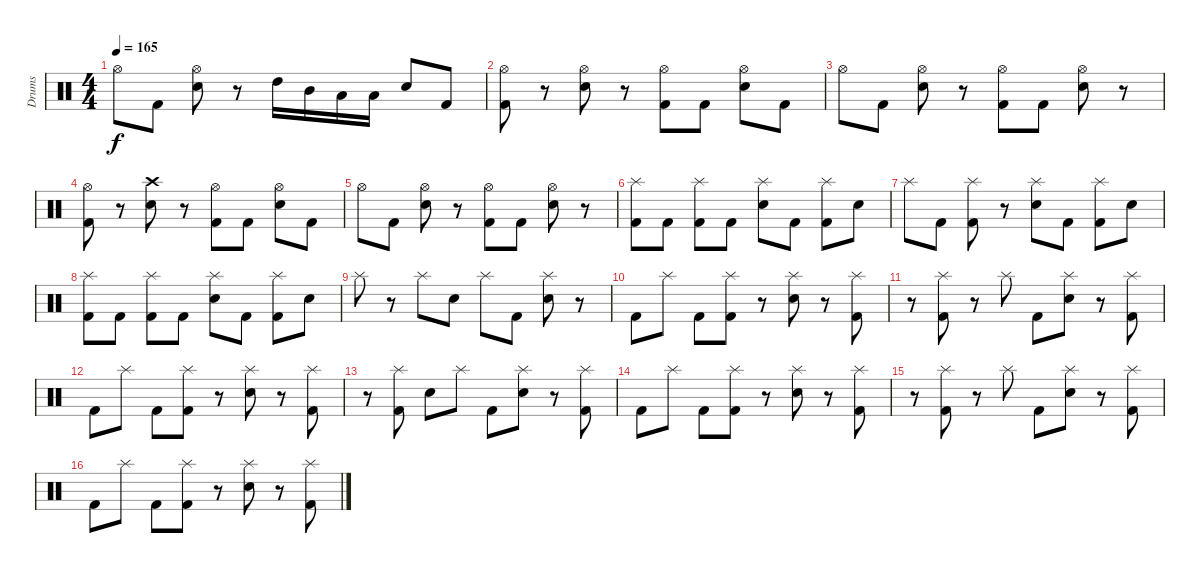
\track ("Drums" "Drums") {instrument percussion}
\staff {score}
\articulation defaults
\ts (4 4)
\tempo 165
\clef neutral
\ks c "Hi-Hat (open)".8{dy f} "Kick (hit) 2".8
("Hi-Hat (open)" "Electric Snare (hit)").8 r.8 "High Tom (hit)".16 "Mid Tom (hit)".16 "Low Tom (hit)".16 "Low Tom (hit)".16 "Electric Snare (hit)".8 "Kick (hit) 2".8 |
("Hi-Hat (open)" "Kick (hit) 2").8 r.8 ("Hi-Hat (open)" "Electric Snare (hit)").8 r.8 ("Hi-Hat (open)" "Kick (hit) 2").8 "Kick (hit) 2".8 ("Hi-Hat (open)" "Electric Snare (hit)").8 "Kick (hit) 2".8 |
"Hi-Hat (open)".8 "Kick (hit) 2".8 ("Hi-Hat (open)" "Electric Snare (hit)").8 r.8 ("Hi-Hat (open)" "Kick (hit) 2").8 "Kick (hit) 2".8 ("Hi-Hat (open)" "Electric Snare (hit)").8 r.8 |
("Hi-Hat (open)" "Kick (hit) 2").8 r.8 ("Crash high (hit)" "Electric Snare (hit)").8 r.8 ("Hi-Hat (open)" "Kick (hit) 2").8 "Kick (hit) 2".8 ("Hi-Hat (open)" "Electric Snare (hit)").8 "Kick (hit) 2".8 |
"Hi-Hat (open)".8 "Kick (hit) 2".8 ("Hi-Hat (open)" "Electric Snare (hit)").8 r.8 ("Hi-Hat (open)" "Kick (hit) 2").8 "Kick (hit) 2".8 ("Hi-Hat (open)" "Electric Snare (hit)").8 r.8 |
("Splash (hit)" "Kick (hit) 2").8 "Kick (hit) 2".8 ("Splash (hit)" "Kick (hit) 2").8 "Kick (hit) 2".8 ("Splash (hit)" "Electric Snare (hit)").8 "Kick (hit) 2".8 ("Splash (hit)" "Kick (hit) 2").8 "Electric Snare (hit)".8 |
"Splash (hit)".8 "Kick (hit) 2".8 ("Splash (hit)" "Kick (hit) 2").8 r.8 ("Splash (hit)" "Electric Snare (hit)").8 "Kick (hit) 2".8 ("Splash (hit)" "Kick (hit) 2").8 "Electric Snare (hit)".8 |
("Splash (hit)" "Kick (hit) 2").8 "Kick (hit) 2".8 ("Splash (hit)" "Kick (hit) 2").8 "Kick (hit) 2".8 ("Splash (hit)" "Electric Snare (hit)").8 "Kick (hit) 2".8 ("Splash (hit)" "Kick (hit) 2").8 "Electric Snare (hit)".8 |
"Splash (hit)".8 r.8 "Splash (hit)".8 "Electric Snare (hit)".8 "Splash (hit)".8 "Kick (hit) 2".8 ("Splash (hit)" "Electric Snare (hit)").8 r.8 |
"Kick (hit) 2".8 "Splash (hit)".8 "Kick (hit) 2".8 ("Splash (hit)" "Kick (hit) 2").8 r.8 ("Splash (hit)" "Electric Snare (hit)").8 r.8 ("Splash (hit)" "Kick (hit) 2").8 |
r.8 ("Splash (hit)" "Kick (hit) 2").8 r.8 "Splash (hit)".8 "Kick (hit) 2".8 ("Splash (hit)" "Electric Snare (hit)").8 r.8 ("Splash (hit)" "Kick (hit) 2").8 |
"Kick (hit) 2".8 "Splash (hit)".8 "Kick (hit) 2".8 ("Splash (hit)" "Kick (hit) 2").8 r.8 ("Splash (hit)" "Electric Snare (hit)").8 r.8 ("Splash (hit)" "Kick (hit) 2").8 |
r.8 ("Splash (hit)" "Kick (hit) 2").8 "Electric Snare (hit)".8 "Splash (hit)".8 "Kick (hit) 2".8 ("Splash (hit)" "Electric Snare (hit)").8 r.8 ("Splash (hit)" "Kick (hit) 2").8 |
"Kick (hit) 2".8 "Splash (hit)".8 "Kick (hit) 2".8 ("Splash (hit)" "Kick (hit) 2").8 r.8 ("Splash (hit)" "Electric Snare (hit)").8 r.8 ("Splash (hit)" "Kick (hit) 2").8 |
r.8 ("Splash (hit)" "Kick (hit) 2").8 r.8 "Splash (hit)".8 "Kick (hit) 2".8 ("Splash (hit)" "Electric Snare (hit)").8 r.8 ("Splash (hit)" "Kick (hit) 2").8 |
"Kick (hit) 2".8 "Splash (hit)".8 "Kick (hit) 2".8 ("Splash (hit)" "Kick (hit) 2").8 r.8 ("Splash (hit)" "Electric Snare (hit)").8 r.8 ("Splash (hit)" "Kick (hit) 2").8
